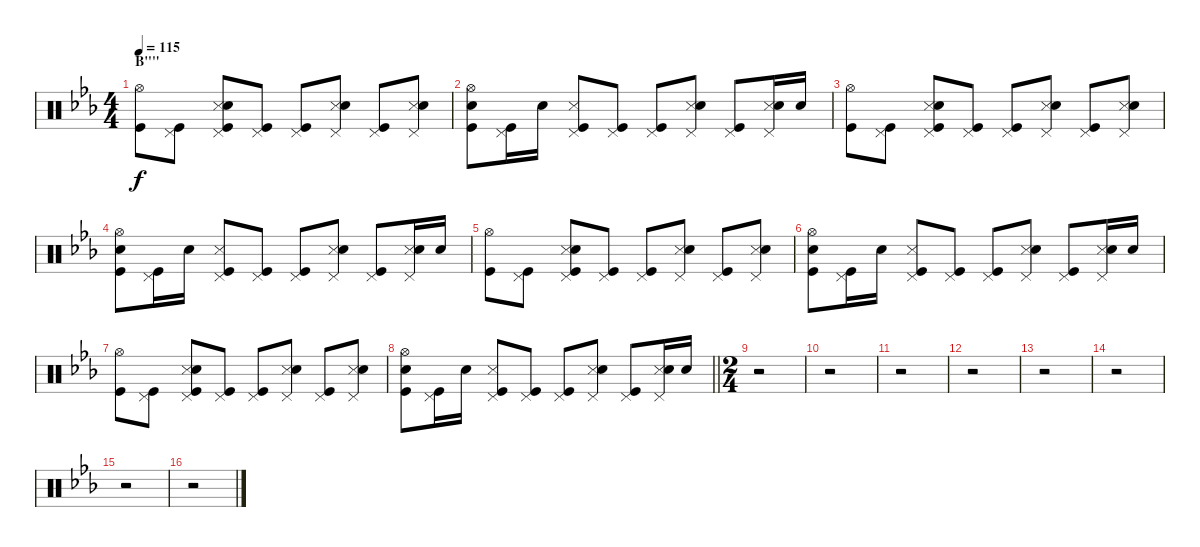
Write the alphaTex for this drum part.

\track "" {instrument percussion}
\staff {score}
\articulation defaults
\ts (4 4)
\section ("" "B''''")
\tempo 115
\clef neutral
\ks cminor
("Hi-Hat (open)" "Kick (hit)").8{dy f} ("Pedal Hi-Hat (hit)" "Kick (hit)").8 ("Pedal Hi-Hat (hit)" "Snare (side stick) 3" "Electric Snare (hit)" "Kick (hit)").8 ("Pedal Hi-Hat (hit)" "Kick (hit)").8 ("Pedal Hi-Hat (hit)" "Kick (hit)").8 ("Pedal Hi-Hat (hit)" "Snare (side stick) 3" "Electric Snare (hit)").8 ("Pedal Hi-Hat (hit)" "Kick (hit)").8 ("Pedal Hi-Hat (hit)" "Snare (side stick) 3" "Electric Snare (hit)").8 |
("Hi-Hat (open)" "Electric Snare (hit)" "Kick (hit)").8 ("Pedal Hi-Hat (hit)" "Kick (hit)").16 "Electric Snare (hit)".16 ("Pedal Hi-Hat (hit)" "Snare (side stick) 3" "Kick (hit)").8 ("Pedal Hi-Hat (hit)" "Kick (hit)").8 ("Pedal Hi-Hat (hit)" "Kick (hit)").8 ("Pedal Hi-Hat (hit)" "Snare (side stick) 3" "Electric Snare (hit)").8 ("Pedal Hi-Hat (hit)" "Kick (hit)").8 ("Pedal Hi-Hat (hit)" "Snare (side stick) 3" "Electric Snare (hit)").16 "Electric Snare (hit)".16 |
("Hi-Hat (open)" "Kick (hit)").8 ("Pedal Hi-Hat (hit)" "Kick (hit)").8 ("Pedal Hi-Hat (hit)" "Snare (side stick) 3" "Electric Snare (hit)" "Kick (hit)").8 ("Pedal Hi-Hat (hit)" "Kick (hit)").8 ("Pedal Hi-Hat (hit)" "Kick (hit)").8 ("Pedal Hi-Hat (hit)" "Snare (side stick) 3" "Electric Snare (hit)").8 ("Pedal Hi-Hat (hit)" "Kick (hit)").8 ("Pedal Hi-Hat (hit)" "Snare (side stick) 3" "Electric Snare (hit)").8 |
("Hi-Hat (open)" "Electric Snare (hit)" "Kick (hit)").8 ("Pedal Hi-Hat (hit)" "Kick (hit)").16 "Electric Snare (hit)".16 ("Pedal Hi-Hat (hit)" "Snare (side stick) 3" "Kick (hit)").8 ("Pedal Hi-Hat (hit)" "Kick (hit)").8 ("Pedal Hi-Hat (hit)" "Kick (hit)").8 ("Pedal Hi-Hat (hit)" "Snare (side stick) 3" "Electric Snare (hit)").8 ("Pedal Hi-Hat (hit)" "Kick (hit)").8 ("Pedal Hi-Hat (hit)" "Snare (side stick) 3" "Electric Snare (hit)").16 "Electric Snare (hit)".16 |
("Hi-Hat (open)" "Kick (hit)").8 ("Pedal Hi-Hat (hit)" "Kick (hit)").8 ("Pedal Hi-Hat (hit)" "Snare (side stick) 3" "Electric Snare (hit)" "Kick (hit)").8 ("Pedal Hi-Hat (hit)" "Kick (hit)").8 ("Pedal Hi-Hat (hit)" "Kick (hit)").8 ("Pedal Hi-Hat (hit)" "Snare (side stick) 3" "Electric Snare (hit)").8 ("Pedal Hi-Hat (hit)" "Kick (hit)").8 ("Pedal Hi-Hat (hit)" "Snare (side stick) 3" "Electric Snare (hit)").8 |
("Hi-Hat (open)" "Electric Snare (hit)" "Kick (hit)").8 ("Pedal Hi-Hat (hit)" "Kick (hit)").16 "Electric Snare (hit)".16 ("Pedal Hi-Hat (hit)" "Snare (side stick) 3" "Kick (hit)").8 ("Pedal Hi-Hat (hit)" "Kick (hit)").8 ("Pedal Hi-Hat (hit)" "Kick (hit)").8 ("Pedal Hi-Hat (hit)" "Snare (side stick) 3" "Electric Snare (hit)").8 ("Pedal Hi-Hat (hit)" "Kick (hit)").8 ("Pedal Hi-Hat (hit)" "Snare (side stick) 3" "Electric Snare (hit)").16 "Electric Snare (hit)".16 |
("Hi-Hat (open)" "Kick (hit)").8 ("Pedal Hi-Hat (hit)" "Kick (hit)").8 ("Pedal Hi-Hat (hit)" "Snare (side stick) 3" "Electric Snare (hit)" "Kick (hit)").8 ("Pedal Hi-Hat (hit)" "Kick (hit)").8 ("Pedal Hi-Hat (hit)" "Kick (hit)").8 ("Pedal Hi-Hat (hit)" "Snare (side stick) 3" "Electric Snare (hit)").8 ("Pedal Hi-Hat (hit)" "Kick (hit)").8 ("Pedal Hi-Hat (hit)" "Snare (side stick) 3" "Electric Snare (hit)").8 |
\barLineRight lightlight
("Hi-Hat (open)" "Electric Snare (hit)" "Kick (hit)").8 ("Pedal Hi-Hat (hit)" "Kick (hit)").16 "Electric Snare (hit)".16 ("Pedal Hi-Hat (hit)" "Snare (side stick) 3" "Kick (hit)").8 ("Pedal Hi-Hat (hit)" "Kick (hit)").8 ("Pedal Hi-Hat (hit)" "Kick (hit)").8 ("Pedal Hi-Hat (hit)" "Snare (side stick) 3" "Electric Snare (hit)").8 ("Pedal Hi-Hat (hit)" "Kick (hit)").8 ("Pedal Hi-Hat (hit)" "Snare (side stick) 3" "Electric Snare (hit)").16 "Electric Snare (hit)".16 |
\ts (2 4)
r.2 |
r.2 |
r.2 |
r.2 |
r.2 |
r.2 |
r.2 |
r.2
